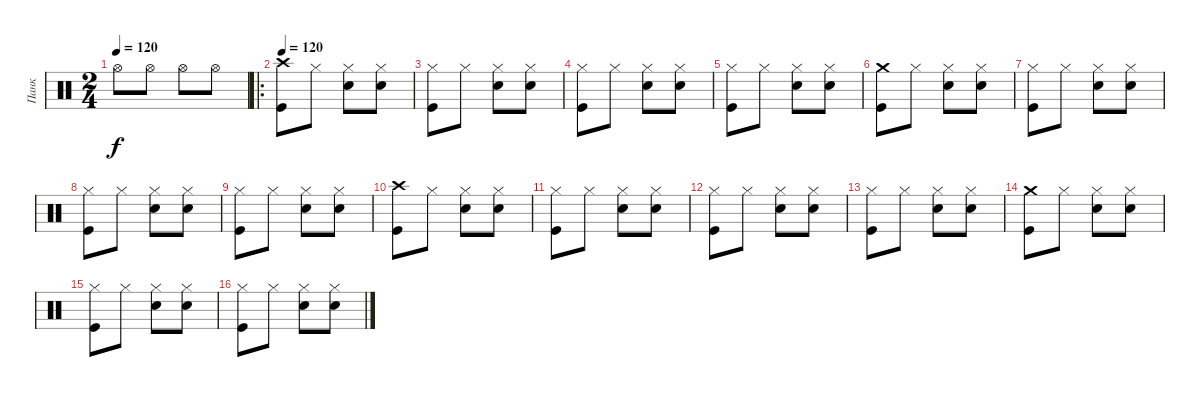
\track ("Панк" "Панк") {instrument percussion}
\staff {score}
\articulation defaults
\ts (2 4)
\tempo 120
\clef neutral
\ks c "Hi-Hat (open)".8{dy f} "Hi-Hat (open)".8 "Hi-Hat (open)".8 "Hi-Hat (open)".8
|
\ro
\tempo 120
("Crash high (hit)" "Kick (hit)").8 "Hi-Hat (closed)".8 ("Hi-Hat (closed)" "Electric Snare (hit)").8 ("Hi-Hat (closed)" "Electric Snare (hit)").8 |
("Hi-Hat (closed)" "Kick (hit)").8 "Hi-Hat (closed)".8 ("Hi-Hat (closed)" "Electric Snare (hit)").8 ("Hi-Hat (closed)" "Electric Snare (hit)").8 |
("Hi-Hat (closed)" "Kick (hit)").8 "Hi-Hat (closed)".8 ("Hi-Hat (closed)" "Electric Snare (hit)").8 ("Hi-Hat (closed)" "Electric Snare (hit)").8 |
("Hi-Hat (closed)" "Kick (hit)").8 "Hi-Hat (closed)".8 ("Hi-Hat (closed)" "Electric Snare (hit)").8 ("Hi-Hat (closed)" "Electric Snare (hit)").8 |
("Crash medium (hit)" "Kick (hit)").8 "Hi-Hat (closed)".8 ("Hi-Hat (closed)" "Electric Snare (hit)").8 ("Hi-Hat (closed)" "Electric Snare (hit)").8 |
("Hi-Hat (closed)" "Kick (hit)").8 "Hi-Hat (closed)".8 ("Hi-Hat (closed)" "Electric Snare (hit)").8 ("Hi-Hat (closed)" "Electric Snare (hit)").8 |
("Hi-Hat (closed)" "Kick (hit)").8 "Hi-Hat (closed)".8 ("Hi-Hat (closed)" "Electric Snare (hit)").8 ("Hi-Hat (closed)" "Electric Snare (hit)").8 |
("Hi-Hat (closed)" "Kick (hit)").8 "Hi-Hat (closed)".8 ("Hi-Hat (closed)" "Electric Snare (hit)").8 ("Hi-Hat (closed)" "Electric Snare (hit)").8 |
("Crash high (hit)" "Kick (hit)").8 "Hi-Hat (closed)".8 ("Hi-Hat (closed)" "Electric Snare (hit)").8 ("Hi-Hat (closed)" "Electric Snare (hit)").8 |
("Hi-Hat (closed)" "Kick (hit)").8 "Hi-Hat (closed)".8 ("Hi-Hat (closed)" "Electric Snare (hit)").8 ("Hi-Hat (closed)" "Electric Snare (hit)").8 |
("Hi-Hat (closed)" "Kick (hit)").8 "Hi-Hat (closed)".8 ("Hi-Hat (closed)" "Electric Snare (hit)").8 ("Hi-Hat (closed)" "Electric Snare (hit)").8 |
("Hi-Hat (closed)" "Kick (hit)").8 "Hi-Hat (closed)".8 ("Hi-Hat (closed)" "Electric Snare (hit)").8 ("Hi-Hat (closed)" "Electric Snare (hit)").8 |
("Crash medium (hit)" "Kick (hit)").8 "Hi-Hat (closed)".8 ("Hi-Hat (closed)" "Electric Snare (hit)").8 ("Hi-Hat (closed)" "Electric Snare (hit)").8 |
("Hi-Hat (closed)" "Kick (hit)").8 "Hi-Hat (closed)".8 ("Hi-Hat (closed)" "Electric Snare (hit)").8 ("Hi-Hat (closed)" "Electric Snare (hit)").8 |
("Hi-Hat (closed)" "Kick (hit)").8 "Hi-Hat (closed)".8 ("Hi-Hat (closed)" "Electric Snare (hit)").8 ("Hi-Hat (closed)" "Electric Snare (hit)").8
